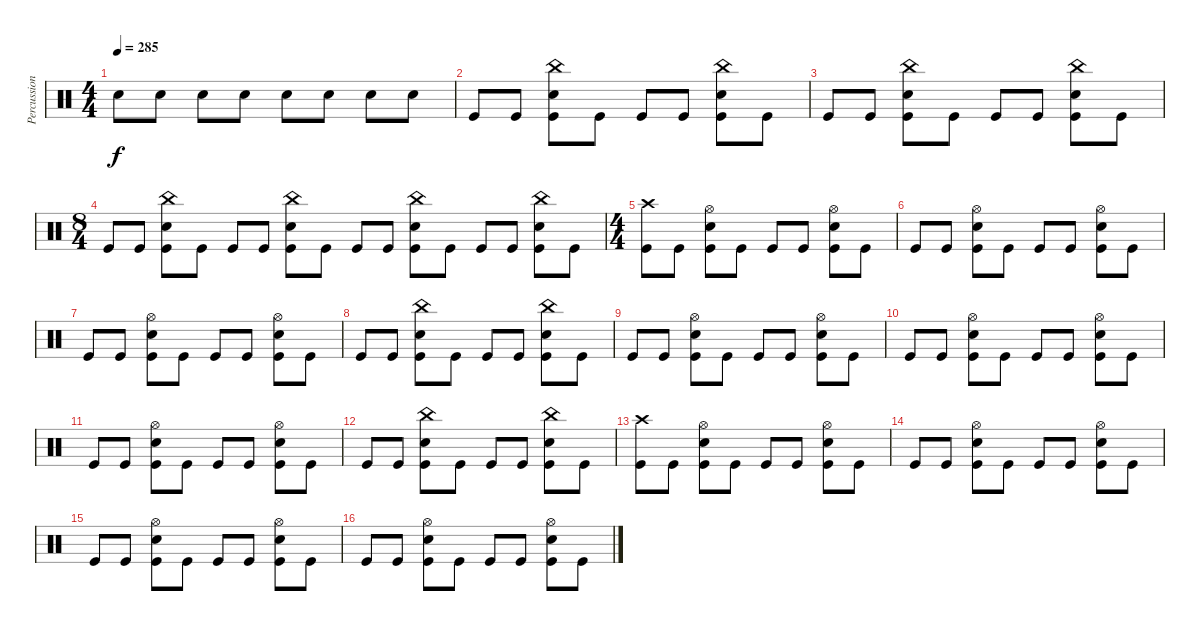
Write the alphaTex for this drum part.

\track ("Percussion" "Percussion") {instrument percussion}
\staff {score}
\articulation defaults
\ts (4 4)
\tempo 285
\clef neutral
\ks c "Snare (hit) 2".8{dy f} "Snare (hit) 2".8 "Snare (hit) 2".8 "Snare (hit) 2".8 "Snare (hit) 2".8 "Snare (hit) 2".8 "Snare (hit) 2".8 "Snare (hit) 2".8
|
"Kick (hit)".8 "Kick (hit)".8 ("Snare (hit) 2" "China (hit)" "Kick (hit)").8 "Kick (hit)".8 "Kick (hit)".8 "Kick (hit)".8 ("Snare (hit) 2" "China (hit)" "Kick (hit)").8 "Kick (hit)".8 |
"Kick (hit)".8 "Kick (hit)".8 ("Snare (hit) 2" "China (hit)" "Kick (hit)").8 "Kick (hit)".8 "Kick (hit)".8 "Kick (hit)".8 ("Snare (hit) 2" "China (hit)" "Kick (hit)").8 "Kick (hit)".8 |
\ts (8 4)
"Kick (hit)".8 "Kick (hit)".8 ("Snare (hit) 2" "China (hit)" "Kick (hit)").8 "Kick (hit)".8 "Kick (hit)".8 "Kick (hit)".8 ("Snare (hit) 2" "China (hit)" "Kick (hit)").8 "Kick (hit)".8 "Kick (hit)".8 "Kick (hit)".8 ("Snare (hit) 2" "China (hit)" "Kick (hit)").8 "Kick (hit)".8 "Kick (hit)".8 "Kick (hit)".8 ("Snare (hit) 2" "China (hit)" "Kick (hit)").8 "Kick (hit)".8 |
\ts (4 4)
("Crash high (hit)" "Kick (hit)").8 "Kick (hit)".8 ("Snare (hit) 2" "Hi-Hat (open)" "Kick (hit)").8 "Kick (hit)".8 "Kick (hit)".8 "Kick (hit)".8 ("Snare (hit) 2" "Hi-Hat (open)" "Kick (hit)").8 "Kick (hit)".8 |
"Kick (hit)".8 "Kick (hit)".8 ("Snare (hit) 2" "Hi-Hat (open)" "Kick (hit)").8 "Kick (hit)".8 "Kick (hit)".8 "Kick (hit)".8 ("Snare (hit) 2" "Hi-Hat (open)" "Kick (hit)").8 "Kick (hit)".8 |
"Kick (hit)".8 "Kick (hit)".8 ("Snare (hit) 2" "Hi-Hat (open)" "Kick (hit)").8 "Kick (hit)".8 "Kick (hit)".8 "Kick (hit)".8 ("Snare (hit) 2" "Hi-Hat (open)" "Kick (hit)").8 "Kick (hit)".8 |
"Kick (hit)".8 "Kick (hit)".8 ("Snare (hit) 2" "China (hit)" "Kick (hit)").8 "Kick (hit)".8 "Kick (hit)".8 "Kick (hit)".8 ("Snare (hit) 2" "China (hit)" "Kick (hit)").8 "Kick (hit)".8 |
"Kick (hit)".8 "Kick (hit)".8 ("Snare (hit) 2" "Hi-Hat (open)" "Kick (hit)").8 "Kick (hit)".8 "Kick (hit)".8 "Kick (hit)".8 ("Snare (hit) 2" "Hi-Hat (open)" "Kick (hit)").8 "Kick (hit)".8 |
"Kick (hit)".8 "Kick (hit)".8 ("Snare (hit) 2" "Hi-Hat (open)" "Kick (hit)").8 "Kick (hit)".8 "Kick (hit)".8 "Kick (hit)".8 ("Snare (hit) 2" "Hi-Hat (open)" "Kick (hit)").8 "Kick (hit)".8 |
"Kick (hit)".8 "Kick (hit)".8 ("Snare (hit) 2" "Hi-Hat (open)" "Kick (hit)").8 "Kick (hit)".8 "Kick (hit)".8 "Kick (hit)".8 ("Snare (hit) 2" "Hi-Hat (open)" "Kick (hit)").8 "Kick (hit)".8 |
"Kick (hit)".8 "Kick (hit)".8 ("Snare (hit) 2" "China (hit)" "Kick (hit)").8 "Kick (hit)".8 "Kick (hit)".8 "Kick (hit)".8 ("Snare (hit) 2" "China (hit)" "Kick (hit)").8 "Kick (hit)".8 |
("Crash high (hit)" "Kick (hit)").8 "Kick (hit)".8 ("Snare (hit) 2" "Hi-Hat (open)" "Kick (hit)").8 "Kick (hit)".8 "Kick (hit)".8 "Kick (hit)".8 ("Snare (hit) 2" "Hi-Hat (open)" "Kick (hit)").8 "Kick (hit)".8 |
"Kick (hit)".8 "Kick (hit)".8 ("Snare (hit) 2" "Hi-Hat (open)" "Kick (hit)").8 "Kick (hit)".8 "Kick (hit)".8 "Kick (hit)".8 ("Snare (hit) 2" "Hi-Hat (open)" "Kick (hit)").8 "Kick (hit)".8 |
"Kick (hit)".8 "Kick (hit)".8 ("Snare (hit) 2" "Hi-Hat (open)" "Kick (hit)").8 "Kick (hit)".8 "Kick (hit)".8 "Kick (hit)".8 ("Snare (hit) 2" "Hi-Hat (open)" "Kick (hit)").8 "Kick (hit)".8 |
"Kick (hit)".8 "Kick (hit)".8 ("Snare (hit) 2" "Hi-Hat (open)" "Kick (hit)").8 "Kick (hit)".8 "Kick (hit)".8 "Kick (hit)".8 ("Snare (hit) 2" "Hi-Hat (open)" "Kick (hit)").8 "Kick (hit)".8
